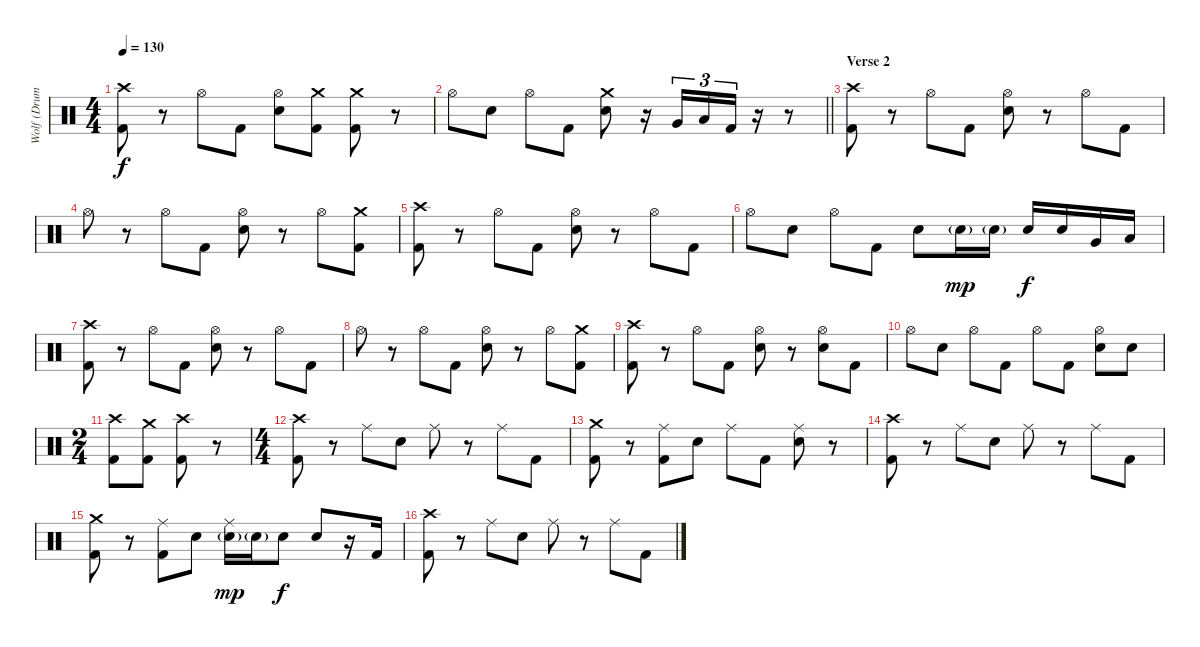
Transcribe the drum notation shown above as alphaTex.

\track ("Wolf (Drums)" "Wolf (Drum") {instrument percussion}
\staff {score}
\articulation defaults
\ts (4 4)
\tempo 130
\clef neutral
\ks c
("Crash high (hit)" "Kick (hit) 2").8{dy f} r.8 "Hi-Hat (open)".8 "Kick (hit) 2".8 ("Hi-Hat (open)" "Snare (hit) 2").8 ("Crash medium (hit)" "Kick (hit) 2").8 ("Crash medium (hit)" "Kick (hit) 2").8 r.8 |
\barLineRight lightlight "Hi-Hat (open)".8 "Snare (hit) 2".8 "Hi-Hat (open)".8 "Kick (hit) 2".8
("Crash medium (hit)" "Snare (hit) 2").8 r.16 "Very Low Tom (hit)".16{tu (3 2)} "Low Floor Tom (hit)".16{tu (3 2)} "Kick (hit) 2".16{tu (3 2)} r.16 r.8 |
\section ("" "Verse 2")
("Crash high (hit)" "Kick (hit) 2").8 r.8 "Hi-Hat (open)".8 "Kick (hit) 2".8 ("Hi-Hat (open)" "Snare (hit) 2").8 r.8 "Hi-Hat (open)".8 "Kick (hit) 2".8 |
"Hi-Hat (open)".8 r.8 "Hi-Hat (open)".8 "Kick (hit) 2".8 ("Hi-Hat (open)" "Snare (hit) 2").8 r.8 "Hi-Hat (open)".8 ("Crash medium (hit)" "Kick (hit) 2").8 |
("Crash high (hit)" "Kick (hit) 2").8 r.8 "Hi-Hat (open)".8 "Kick (hit) 2".8 ("Hi-Hat (open)" "Snare (hit) 2").8 r.8 "Hi-Hat (open)".8 "Kick (hit) 2".8 |
"Hi-Hat (open)".8 "Snare (hit) 2".8 "Hi-Hat (open)".8 "Kick (hit) 2".8 "Snare (hit) 2".8 "Snare (hit) 2"{g}.16{dy mp} "Snare (hit) 2"{g}.16 "Snare (hit) 2".16{dy f} "Snare (hit) 2".16 "Very Low Tom (hit)".16 "Low Floor Tom (hit)".16 |
("Crash high (hit)" "Kick (hit) 2").8 r.8 "Hi-Hat (open)".8 "Kick (hit) 2".8 ("Hi-Hat (open)" "Snare (hit) 2").8 r.8 "Hi-Hat (open)".8 "Kick (hit) 2".8 |
"Hi-Hat (open)".8 r.8 "Hi-Hat (open)".8 "Kick (hit) 2".8 ("Hi-Hat (open)" "Snare (hit) 2").8 r.8 "Hi-Hat (open)".8 ("Crash medium (hit)" "Kick (hit) 2").8 |
("Crash high (hit)" "Kick (hit) 2").8 r.8 "Hi-Hat (open)".8 "Kick (hit) 2".8 ("Hi-Hat (open)" "Snare (hit) 2").8 r.8 ("Hi-Hat (open)" "Snare (hit) 2").8 "Kick (hit) 2".8 |
"Hi-Hat (open)".8 "Snare (hit) 2".8 "Hi-Hat (open)".8 "Kick (hit) 2".8 "Hi-Hat (open)".8 "Kick (hit) 2".8 ("Hi-Hat (open)" "Snare (hit) 2").8 "Snare (hit) 2".8 |
\ts (2 4)
("Crash high (hit)" "Kick (hit) 2").8 ("Crash medium (hit)" "Kick (hit) 2").8 ("Crash high (hit)" "Kick (hit) 2").8 r.8 |
\ts (4 4)
("Crash high (hit)" "Kick (hit) 2").8 r.8 "Ride (middle)".8 "Snare (hit) 2".8 "Ride (middle)".8 r.8 "Ride (middle)".8 "Kick (hit) 2".8 |
("Crash medium (hit)" "Kick (hit) 2").8 r.8 ("Ride (middle)" "Kick (hit) 2").8 "Snare (hit) 2".8 "Ride (middle)".8 "Kick (hit) 2".8 ("Ride (middle)" "Snare (hit) 2").8 r.8 |
("Crash high (hit)" "Kick (hit) 2").8 r.8 "Ride (middle)".8 "Snare (hit) 2".8 "Ride (middle)".8 r.8 "Ride (middle)".8 "Kick (hit) 2".8 |
("Crash medium (hit)" "Kick (hit) 2").8 r.8 ("Ride (middle)" "Kick (hit) 2").8 "Snare (hit) 2".8 ("Ride (middle)" "Snare (hit) 2"{g}).16{dy mp} "Snare (hit) 2"{g}.16 "Snare (hit) 2".8{dy f} "Snare (hit) 2".8 r.16 "Kick (hit) 2".16 |
("Crash high (hit)" "Kick (hit) 2").8 r.8 "Ride (middle)".8 "Snare (hit) 2".8 "Ride (middle)".8 r.8 "Ride (middle)".8 "Kick (hit) 2".8
